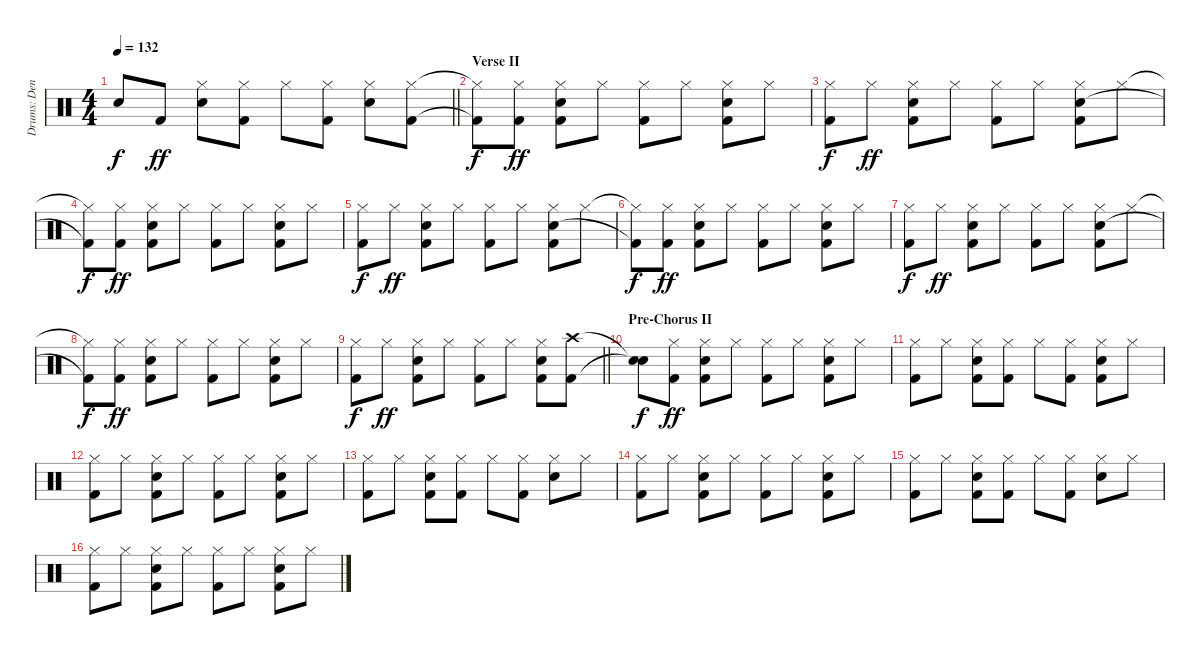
\track ("Drums: Denny" "Drums: Den") {instrument percussion}
\staff {score}
\articulation defaults
\ts (4 4)
\tempo 132
\clef neutral
\barLineRight lightlight
\ks c "Snare (hit)"{t}.8{dy f} "Kick (hit) 2".8{dy ff}
("Hi-Hat (closed)" "Electric Snare (hit)").8 ("Hi-Hat (closed)" "Kick (hit) 2").8 "Hi-Hat (closed)".8 ("Hi-Hat (closed)" "Kick (hit) 2").8 ("Hi-Hat (closed)" "Electric Snare (hit)").8 ("Hi-Hat (closed)" "Kick (hit) 2").8 |
\section ("" "Verse II")
("Hi-Hat (closed)"{t} "Kick (hit) 2"{t}).8{dy f} ("Hi-Hat (closed)" "Kick (hit) 2").8{dy ff} ("Hi-Hat (closed)" "Electric Snare (hit)" "Kick (hit) 2").8 "Hi-Hat (closed)".8 ("Hi-Hat (closed)" "Kick (hit) 2").8 "Hi-Hat (closed)".8 ("Hi-Hat (closed)" "Electric Snare (hit)" "Kick (hit) 2").8 "Hi-Hat (closed)".8 |
("Hi-Hat (closed)" "Kick (hit) 2").8{dy f} "Hi-Hat (closed)".8{dy ff} ("Hi-Hat (closed)" "Electric Snare (hit)" "Kick (hit) 2").8 "Hi-Hat (closed)".8 ("Hi-Hat (closed)" "Kick (hit) 2").8 "Hi-Hat (closed)".8 ("Hi-Hat (closed)" "Electric Snare (hit)" "Kick (hit) 2").8 "Hi-Hat (closed)".8 |
("Hi-Hat (closed)"{t} "Kick (hit) 2"{t}).8{dy f} ("Hi-Hat (closed)" "Kick (hit) 2").8{dy ff} ("Hi-Hat (closed)" "Electric Snare (hit)" "Kick (hit) 2").8 "Hi-Hat (closed)".8 ("Hi-Hat (closed)" "Kick (hit) 2").8 "Hi-Hat (closed)".8 ("Hi-Hat (closed)" "Electric Snare (hit)" "Kick (hit) 2").8 "Hi-Hat (closed)".8 |
("Hi-Hat (closed)" "Kick (hit) 2").8{dy f} "Hi-Hat (closed)".8{dy ff} ("Hi-Hat (closed)" "Electric Snare (hit)" "Kick (hit) 2").8 "Hi-Hat (closed)".8 ("Hi-Hat (closed)" "Kick (hit) 2").8 "Hi-Hat (closed)".8 ("Hi-Hat (closed)" "Electric Snare (hit)" "Kick (hit) 2").8 "Hi-Hat (closed)".8 |
("Hi-Hat (closed)"{t} "Kick (hit) 2"{t}).8{dy f} ("Hi-Hat (closed)" "Kick (hit) 2").8{dy ff} ("Hi-Hat (closed)" "Electric Snare (hit)" "Kick (hit) 2").8 "Hi-Hat (closed)".8 ("Hi-Hat (closed)" "Kick (hit) 2").8 "Hi-Hat (closed)".8 ("Hi-Hat (closed)" "Electric Snare (hit)" "Kick (hit) 2").8 "Hi-Hat (closed)".8 |
("Hi-Hat (closed)" "Kick (hit) 2").8{dy f} "Hi-Hat (closed)".8{dy ff} ("Hi-Hat (closed)" "Electric Snare (hit)" "Kick (hit) 2").8 "Hi-Hat (closed)".8 ("Hi-Hat (closed)" "Kick (hit) 2").8 "Hi-Hat (closed)".8 ("Hi-Hat (closed)" "Electric Snare (hit)" "Kick (hit) 2").8 "Hi-Hat (closed)".8 |
("Hi-Hat (closed)"{t} "Kick (hit) 2"{t}).8{dy f} ("Hi-Hat (closed)" "Kick (hit) 2").8{dy ff} ("Hi-Hat (closed)" "Electric Snare (hit)" "Kick (hit) 2").8 "Hi-Hat (closed)".8 ("Hi-Hat (closed)" "Kick (hit) 2").8 "Hi-Hat (closed)".8 ("Hi-Hat (closed)" "Electric Snare (hit)" "Kick (hit) 2").8 "Hi-Hat (closed)".8 |
\barLineRight lightlight
("Hi-Hat (closed)" "Kick (hit) 2").8{dy f} "Hi-Hat (closed)".8{dy ff} ("Hi-Hat (closed)" "Electric Snare (hit)" "Kick (hit) 2").8 "Hi-Hat (closed)".8 ("Hi-Hat (closed)" "Kick (hit) 2").8 "Hi-Hat (closed)".8 ("Hi-Hat (closed)" "Electric Snare (hit)" "Kick (hit) 2").8 ("Crash high (hit)" "Kick (hit) 2").8 |
\section ("" "Pre-Chorus II")
("Snare (hit)"{t} "Snare (hit)"{t}).8{dy f} ("Hi-Hat (closed)" "Kick (hit) 2").8{dy ff} ("Hi-Hat (closed)" "Electric Snare (hit)" "Kick (hit) 2").8 "Hi-Hat (closed)".8 ("Hi-Hat (closed)" "Kick (hit) 2").8 "Hi-Hat (closed)".8 ("Hi-Hat (closed)" "Electric Snare (hit)" "Kick (hit) 2").8 "Hi-Hat (closed)".8 |
("Hi-Hat (closed)" "Kick (hit) 2").8 "Hi-Hat (closed)".8 ("Hi-Hat (closed)" "Electric Snare (hit)" "Kick (hit) 2").8 ("Hi-Hat (closed)" "Kick (hit) 2").8 "Hi-Hat (closed)".8 ("Hi-Hat (closed)" "Kick (hit) 2").8 ("Hi-Hat (closed)" "Electric Snare (hit)" "Kick (hit) 2").8 "Hi-Hat (closed)".8 |
("Hi-Hat (closed)" "Kick (hit) 2").8 "Hi-Hat (closed)".8 ("Hi-Hat (closed)" "Electric Snare (hit)" "Kick (hit) 2").8 "Hi-Hat (closed)".8 ("Hi-Hat (closed)" "Kick (hit) 2").8 "Hi-Hat (closed)".8 ("Hi-Hat (closed)" "Electric Snare (hit)" "Kick (hit) 2").8 "Hi-Hat (closed)".8 |
("Hi-Hat (closed)" "Kick (hit) 2").8 "Hi-Hat (closed)".8 ("Hi-Hat (closed)" "Electric Snare (hit)" "Kick (hit) 2").8 ("Hi-Hat (closed)" "Kick (hit) 2").8 "Hi-Hat (closed)".8 ("Hi-Hat (closed)" "Kick (hit) 2").8 ("Hi-Hat (closed)" "Electric Snare (hit)").8 "Hi-Hat (closed)".8 |
("Hi-Hat (closed)" "Kick (hit) 2").8 "Hi-Hat (closed)".8 ("Hi-Hat (closed)" "Electric Snare (hit)" "Kick (hit) 2").8 "Hi-Hat (closed)".8 ("Hi-Hat (closed)" "Kick (hit) 2").8 "Hi-Hat (closed)".8 ("Hi-Hat (closed)" "Electric Snare (hit)" "Kick (hit) 2").8 "Hi-Hat (closed)".8 |
("Hi-Hat (closed)" "Kick (hit) 2").8 "Hi-Hat (closed)".8 ("Hi-Hat (closed)" "Electric Snare (hit)" "Kick (hit) 2").8 ("Hi-Hat (closed)" "Kick (hit) 2").8 "Hi-Hat (closed)".8 ("Hi-Hat (closed)" "Kick (hit) 2").8 ("Hi-Hat (closed)" "Electric Snare (hit)").8 "Hi-Hat (closed)".8 |
("Hi-Hat (closed)" "Kick (hit) 2").8 "Hi-Hat (closed)".8 ("Hi-Hat (closed)" "Electric Snare (hit)" "Kick (hit) 2").8 "Hi-Hat (closed)".8 ("Hi-Hat (closed)" "Kick (hit) 2").8 "Hi-Hat (closed)".8 ("Hi-Hat (closed)" "Electric Snare (hit)" "Kick (hit) 2").8 "Hi-Hat (closed)".8
